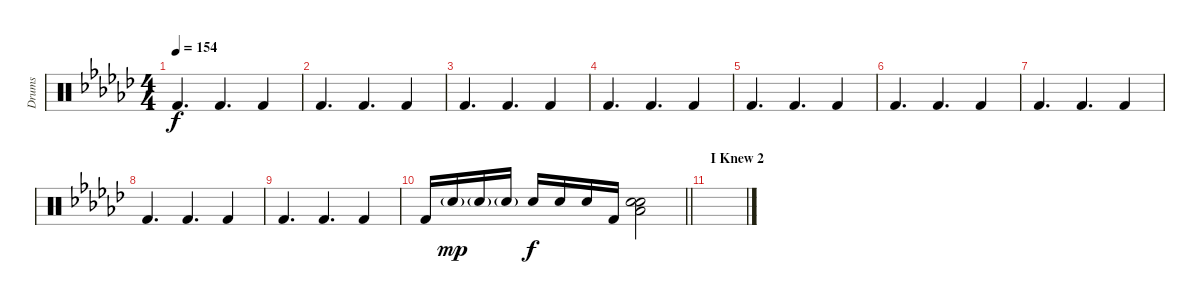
\track ("Drums" "Drums") {instrument percussion}
\staff {score}
\articulation defaults
\ts (4 4)
\tempo 154
\clef neutral
\ks gb "Kick (hit) 2".4{d dy f} "Kick (hit) 2".4{d} "Kick (hit) 2".4
|
"Kick (hit) 2".4{d} "Kick (hit) 2".4{d} "Kick (hit) 2".4 |
"Kick (hit) 2".4{d} "Kick (hit) 2".4{d} "Kick (hit) 2".4 |
"Kick (hit) 2".4{d} "Kick (hit) 2".4{d} "Kick (hit) 2".4 |
"Kick (hit) 2".4{d} "Kick (hit) 2".4{d} "Kick (hit) 2".4 |
"Kick (hit) 2".4{d} "Kick (hit) 2".4{d} "Kick (hit) 2".4 |
"Kick (hit) 2".4{d} "Kick (hit) 2".4{d} "Kick (hit) 2".4 |
"Kick (hit) 2".4{d} "Kick (hit) 2".4{d} "Kick (hit) 2".4 |
"Kick (hit) 2".4{d} "Kick (hit) 2".4{d} "Kick (hit) 2".4 |
\barLineRight lightlight "Kick (hit) 2".16 "Snare (hit) 2"{g}.16{dy mp} "Snare (hit) 2"{g}.16 "Snare (hit) 2"{g}.16 "Snare (hit) 2".16{dy f} "Snare (hit) 2".16 "Snare (hit) 2".16 "Kick (hit) 2".16
("Low Floor Tom (hit)" "Electric Snare (hit)" "Snare (hit) 2").2 |
\section ("" "I Knew 2")
